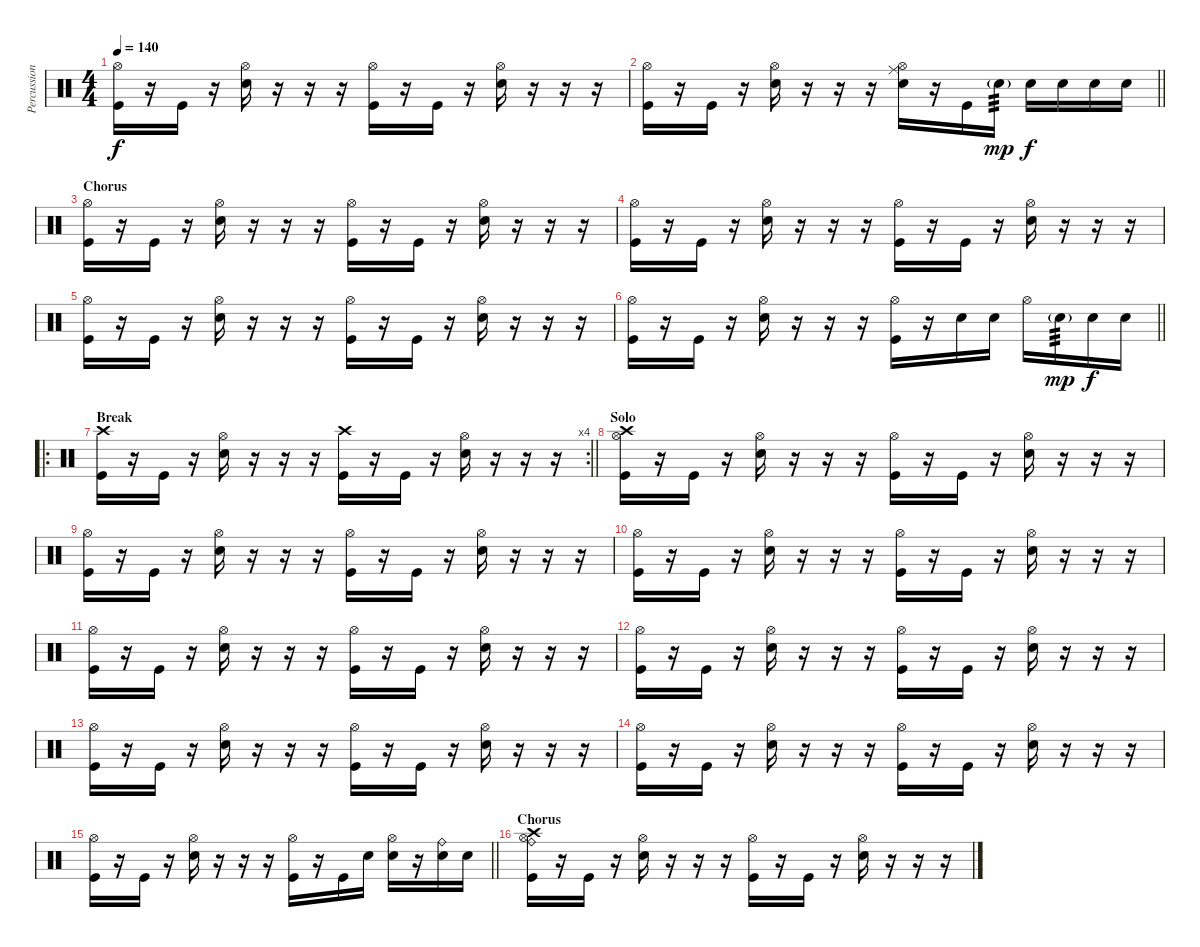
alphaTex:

\track ("Percussion" "Percussion") {instrument percussion}
\staff {score}
\articulation defaults
\ts (4 4)
\tempo 140
\clef neutral
\ks c
("Hi-Hat (open)" "Kick (hit)").16{dy f} r.16 "Kick (hit)".16 r.16 ("Hi-Hat (open)" "Snare (hit) 2").16 r.16 r.16 r.16 ("Hi-Hat (open)" "Kick (hit)").16 r.16 "Kick (hit)".16 r.16 ("Hi-Hat (open)" "Snare (hit) 2").16 r.16 r.16 r.16 |
\barLineRight lightlight
("Hi-Hat (open)" "Kick (hit)").16 r.16 "Kick (hit)".16 r.16 ("Hi-Hat (open)" "Snare (hit) 2").16 r.16 r.16 r.16 ("Ride (middle)" "Hi-Hat (open)" "Snare (hit) 2").16 r.16 "Kick (hit)".16 "Snare (hit) 2"{g}.16{tp 3 dy mp} "Snare (hit) 2".16{dy f} "Snare (hit) 2".16 "Snare (hit) 2".16 "Snare (hit) 2".16 |
\section ("" "Chorus")
("Hi-Hat (open)" "Kick (hit)").16 r.16 "Kick (hit)".16 r.16 ("Hi-Hat (open)" "Snare (hit) 2").16 r.16 r.16 r.16 ("Hi-Hat (open)" "Kick (hit)").16 r.16 "Kick (hit)".16 r.16 ("Hi-Hat (open)" "Snare (hit) 2").16 r.16 r.16 r.16 |
("Hi-Hat (open)" "Kick (hit)").16 r.16 "Kick (hit)".16 r.16 ("Hi-Hat (open)" "Snare (hit) 2").16 r.16 r.16 r.16 ("Hi-Hat (open)" "Kick (hit)").16 r.16 "Kick (hit)".16 r.16 ("Hi-Hat (open)" "Snare (hit) 2").16 r.16 r.16 r.16 |
("Hi-Hat (open)" "Kick (hit)").16 r.16 "Kick (hit)".16 r.16 ("Hi-Hat (open)" "Snare (hit) 2").16 r.16 r.16 r.16 ("Hi-Hat (open)" "Kick (hit)").16 r.16 "Kick (hit)".16 r.16 ("Hi-Hat (open)" "Snare (hit) 2").16 r.16 r.16 r.16 |
\barLineRight lightlight
("Hi-Hat (open)" "Kick (hit)").16 r.16 "Kick (hit)".16 r.16 ("Hi-Hat (open)" "Snare (hit) 2").16 r.16 r.16 r.16 ("Hi-Hat (open)" "Kick (hit)").16 r.16 "Snare (hit) 2".16 "Snare (hit) 2".16 "Hi-Hat (open)".16 "Snare (hit) 2"{g}.16{tp 3 dy mp} "Snare (hit) 2".16{dy f} "Snare (hit) 2".16 |
\ro
\rc 4
\section ("" "Break")
\barLineRight lightlight
("Crash high (hit)" "Kick (hit)").16 r.16 "Kick (hit)".16 r.16 ("Hi-Hat (open)" "Snare (hit) 2").16 r.16 r.16 r.16 ("Crash high (hit)" "Kick (hit)").16 r.16 "Kick (hit)".16 r.16 ("Hi-Hat (open)" "Snare (hit) 2").16 r.16 r.16 r.16 |
\section ("" "Solo")
("Hi-Hat (open)" "Crash high (hit)" "Kick (hit)").16 r.16 "Kick (hit)".16 r.16 ("Hi-Hat (open)" "Snare (hit) 2").16 r.16 r.16 r.16 ("Hi-Hat (open)" "Kick (hit)").16 r.16 "Kick (hit)".16 r.16 ("Hi-Hat (open)" "Snare (hit) 2").16 r.16 r.16 r.16 |
("Hi-Hat (open)" "Kick (hit)").16 r.16 "Kick (hit)".16 r.16 ("Hi-Hat (open)" "Snare (hit) 2").16 r.16 r.16 r.16 ("Hi-Hat (open)" "Kick (hit)").16 r.16 "Kick (hit)".16 r.16 ("Hi-Hat (open)" "Snare (hit) 2").16 r.16 r.16 r.16 |
("Hi-Hat (open)" "Kick (hit)").16 r.16 "Kick (hit)".16 r.16 ("Hi-Hat (open)" "Snare (hit) 2").16 r.16 r.16 r.16 ("Hi-Hat (open)" "Kick (hit)").16 r.16 "Kick (hit)".16 r.16 ("Hi-Hat (open)" "Snare (hit) 2").16 r.16 r.16 r.16 |
("Hi-Hat (open)" "Kick (hit)").16 r.16 "Kick (hit)".16 r.16 ("Hi-Hat (open)" "Snare (hit) 2").16 r.16 r.16 r.16 ("Hi-Hat (open)" "Kick (hit)").16 r.16 "Kick (hit)".16 r.16 ("Hi-Hat (open)" "Snare (hit) 2").16 r.16 r.16 r.16 |
("Hi-Hat (open)" "Kick (hit)").16 r.16 "Kick (hit)".16 r.16 ("Hi-Hat (open)" "Snare (hit) 2").16 r.16 r.16 r.16 ("Hi-Hat (open)" "Kick (hit)").16 r.16 "Kick (hit)".16 r.16 ("Hi-Hat (open)" "Snare (hit) 2").16 r.16 r.16 r.16 |
("Hi-Hat (open)" "Kick (hit)").16 r.16 "Kick (hit)".16 r.16 ("Hi-Hat (open)" "Snare (hit) 2").16 r.16 r.16 r.16 ("Hi-Hat (open)" "Kick (hit)").16 r.16 "Kick (hit)".16 r.16 ("Hi-Hat (open)" "Snare (hit) 2").16 r.16 r.16 r.16 |
("Hi-Hat (open)" "Kick (hit)").16 r.16 "Kick (hit)".16 r.16 ("Hi-Hat (open)" "Snare (hit) 2").16 r.16 r.16 r.16 ("Hi-Hat (open)" "Kick (hit)").16 r.16 "Kick (hit)".16 r.16 ("Hi-Hat (open)" "Snare (hit) 2").16 r.16 r.16 r.16 |
\barLineRight lightlight
("Hi-Hat (open)" "Kick (hit)").16 r.16 "Kick (hit)".16 r.16 ("Hi-Hat (open)" "Snare (hit) 2").16 r.16 r.16 r.16 ("Hi-Hat (open)" "Kick (hit)").16 r.16 "Kick (hit)".16 "Snare (hit) 2".16 ("Hi-Hat (open)" "Snare (hit) 2").16 r.16 ("Ride (bell)" "Snare (hit) 2").16 "Snare (hit) 2".16 |
\section ("" "Chorus")
("Hi-Hat (open)" "Ride (bell)" "Crash high (hit)" "Kick (hit)").16 r.16 "Kick (hit)".16 r.16 ("Hi-Hat (open)" "Snare (hit) 2").16 r.16 r.16 r.16 ("Hi-Hat (open)" "Kick (hit)").16 r.16 "Kick (hit)".16 r.16 ("Hi-Hat (open)" "Snare (hit) 2").16 r.16 r.16 r.16
